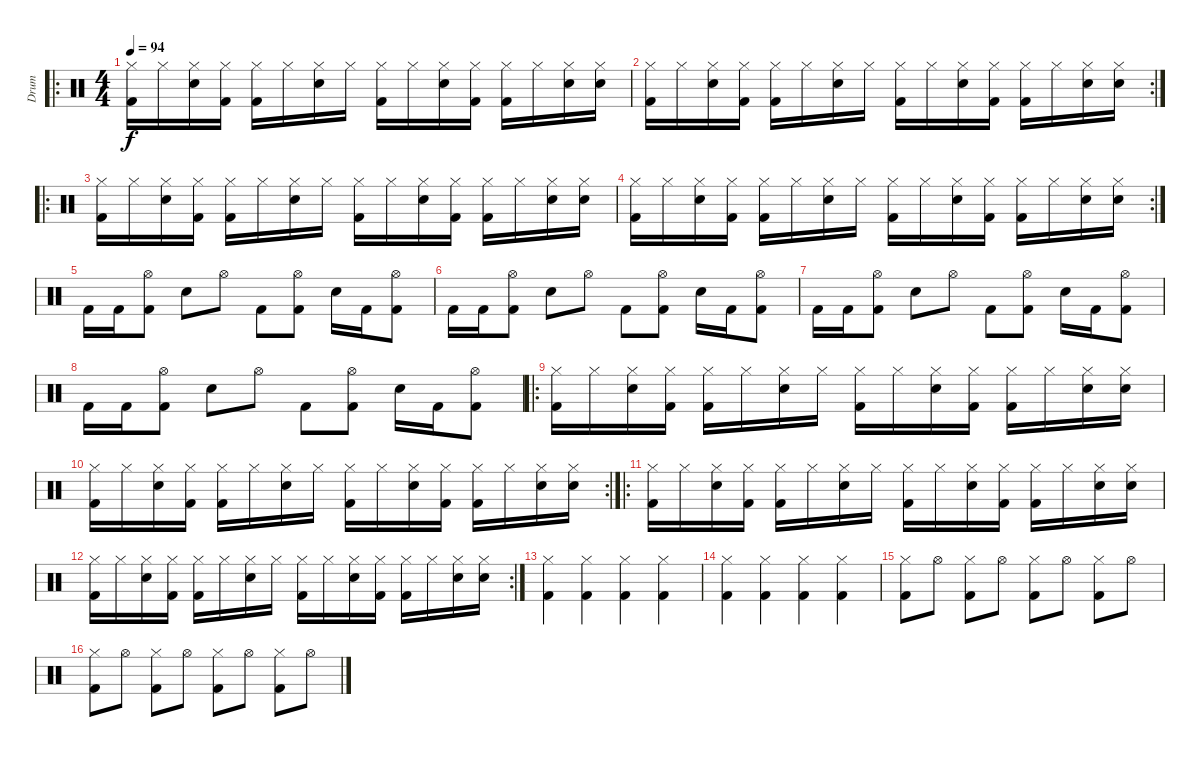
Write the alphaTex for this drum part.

\track ("Drum" "Drum") {instrument percussion}
\staff {score}
\articulation defaults
\ro
\ts (4 4)
\tempo 94
\clef neutral
\ks c
("Kick (hit) 2" "Hi-Hat (closed)").16{dy f} "Hi-Hat (closed)".16 ("Snare (hit) 2" "Hi-Hat (closed)").16 ("Kick (hit) 2" "Hi-Hat (closed)").16 ("Kick (hit) 2" "Hi-Hat (closed)").16 "Hi-Hat (closed)".16 ("Snare (hit) 2" "Hi-Hat (closed)").16 "Hi-Hat (closed)".16 ("Kick (hit) 2" "Hi-Hat (closed)").16 "Hi-Hat (closed)".16 ("Snare (hit) 2" "Hi-Hat (closed)").16 ("Kick (hit) 2" "Hi-Hat (closed)").16 ("Kick (hit) 2" "Hi-Hat (closed)").16 "Hi-Hat (closed)".16 ("Snare (hit) 2" "Hi-Hat (closed)").16 ("Snare (hit) 2" "Hi-Hat (closed)").16 |
\rc 2
("Kick (hit) 2" "Hi-Hat (closed)").16 "Hi-Hat (closed)".16 ("Snare (hit) 2" "Hi-Hat (closed)").16 ("Kick (hit) 2" "Hi-Hat (closed)").16 ("Kick (hit) 2" "Hi-Hat (closed)").16 "Hi-Hat (closed)".16 ("Snare (hit) 2" "Hi-Hat (closed)").16 "Hi-Hat (closed)".16 ("Kick (hit) 2" "Hi-Hat (closed)").16 "Hi-Hat (closed)".16 ("Snare (hit) 2" "Hi-Hat (closed)").16 ("Kick (hit) 2" "Hi-Hat (closed)").16 ("Kick (hit) 2" "Hi-Hat (closed)").16 "Hi-Hat (closed)".16 ("Snare (hit) 2" "Hi-Hat (closed)").16 ("Snare (hit) 2" "Hi-Hat (closed)").16 |
\ro
("Kick (hit) 2" "Hi-Hat (closed)").16 "Hi-Hat (closed)".16 ("Snare (hit) 2" "Hi-Hat (closed)").16 ("Kick (hit) 2" "Hi-Hat (closed)").16 ("Kick (hit) 2" "Hi-Hat (closed)").16 "Hi-Hat (closed)".16 ("Snare (hit) 2" "Hi-Hat (closed)").16 "Hi-Hat (closed)".16 ("Kick (hit) 2" "Hi-Hat (closed)").16 "Hi-Hat (closed)".16 ("Snare (hit) 2" "Hi-Hat (closed)").16 ("Kick (hit) 2" "Hi-Hat (closed)").16 ("Kick (hit) 2" "Hi-Hat (closed)").16 "Hi-Hat (closed)".16 ("Snare (hit) 2" "Hi-Hat (closed)").16 ("Snare (hit) 2" "Hi-Hat (closed)").16 |
\rc 2
("Kick (hit) 2" "Hi-Hat (closed)").16 "Hi-Hat (closed)".16 ("Snare (hit) 2" "Hi-Hat (closed)").16 ("Kick (hit) 2" "Hi-Hat (closed)").16 ("Kick (hit) 2" "Hi-Hat (closed)").16 "Hi-Hat (closed)".16 ("Snare (hit) 2" "Hi-Hat (closed)").16 "Hi-Hat (closed)".16 ("Kick (hit) 2" "Hi-Hat (closed)").16 "Hi-Hat (closed)".16 ("Snare (hit) 2" "Hi-Hat (closed)").16 ("Kick (hit) 2" "Hi-Hat (closed)").16 ("Kick (hit) 2" "Hi-Hat (closed)").16 "Hi-Hat (closed)".16 ("Snare (hit) 2" "Hi-Hat (closed)").16 ("Snare (hit) 2" "Hi-Hat (closed)").16 |
"Kick (hit) 2".16 "Kick (hit) 2".16 ("Kick (hit) 2" "Hi-Hat (open)").8 "Snare (hit) 2".8 "Hi-Hat (open)".8 "Kick (hit) 2".8 ("Kick (hit) 2" "Hi-Hat (open)").8 "Snare (hit) 2".16 "Kick (hit) 2".16 ("Kick (hit) 2" "Hi-Hat (open)").8 |
"Kick (hit) 2".16 "Kick (hit) 2".16 ("Kick (hit) 2" "Hi-Hat (open)").8 "Snare (hit) 2".8 "Hi-Hat (open)".8 "Kick (hit) 2".8 ("Kick (hit) 2" "Hi-Hat (open)").8 "Snare (hit) 2".16 "Kick (hit) 2".16 ("Kick (hit) 2" "Hi-Hat (open)").8 |
"Kick (hit) 2".16 "Kick (hit) 2".16 ("Kick (hit) 2" "Hi-Hat (open)").8 "Snare (hit) 2".8 "Hi-Hat (open)".8 "Kick (hit) 2".8 ("Kick (hit) 2" "Hi-Hat (open)").8 "Snare (hit) 2".16 "Kick (hit) 2".16 ("Kick (hit) 2" "Hi-Hat (open)").8 |
"Kick (hit) 2".16 "Kick (hit) 2".16 ("Kick (hit) 2" "Hi-Hat (open)").8 "Snare (hit) 2".8 "Hi-Hat (open)".8 "Kick (hit) 2".8 ("Kick (hit) 2" "Hi-Hat (open)").8 "Snare (hit) 2".16 "Kick (hit) 2".16 ("Kick (hit) 2" "Hi-Hat (open)").8 |
\ro
("Kick (hit) 2" "Hi-Hat (closed)").16 "Hi-Hat (closed)".16 ("Snare (hit) 2" "Hi-Hat (closed)").16 ("Kick (hit) 2" "Hi-Hat (closed)").16 ("Kick (hit) 2" "Hi-Hat (closed)").16 "Hi-Hat (closed)".16 ("Snare (hit) 2" "Hi-Hat (closed)").16 "Hi-Hat (closed)".16 ("Kick (hit) 2" "Hi-Hat (closed)").16 "Hi-Hat (closed)".16 ("Snare (hit) 2" "Hi-Hat (closed)").16 ("Kick (hit) 2" "Hi-Hat (closed)").16 ("Kick (hit) 2" "Hi-Hat (closed)").16 "Hi-Hat (closed)".16 ("Snare (hit) 2" "Hi-Hat (closed)").16 ("Snare (hit) 2" "Hi-Hat (closed)").16 |
\rc 2
("Kick (hit) 2" "Hi-Hat (closed)").16 "Hi-Hat (closed)".16 ("Snare (hit) 2" "Hi-Hat (closed)").16 ("Kick (hit) 2" "Hi-Hat (closed)").16 ("Kick (hit) 2" "Hi-Hat (closed)").16 "Hi-Hat (closed)".16 ("Snare (hit) 2" "Hi-Hat (closed)").16 "Hi-Hat (closed)".16 ("Kick (hit) 2" "Hi-Hat (closed)").16 "Hi-Hat (closed)".16 ("Snare (hit) 2" "Hi-Hat (closed)").16 ("Kick (hit) 2" "Hi-Hat (closed)").16 ("Kick (hit) 2" "Hi-Hat (closed)").16 "Hi-Hat (closed)".16 ("Snare (hit) 2" "Hi-Hat (closed)").16 ("Snare (hit) 2" "Hi-Hat (closed)").16 |
\ro
("Kick (hit) 2" "Hi-Hat (closed)").16 "Hi-Hat (closed)".16 ("Snare (hit) 2" "Hi-Hat (closed)").16 ("Kick (hit) 2" "Hi-Hat (closed)").16 ("Kick (hit) 2" "Hi-Hat (closed)").16 "Hi-Hat (closed)".16 ("Snare (hit) 2" "Hi-Hat (closed)").16 "Hi-Hat (closed)".16 ("Kick (hit) 2" "Hi-Hat (closed)").16 "Hi-Hat (closed)".16 ("Snare (hit) 2" "Hi-Hat (closed)").16 ("Kick (hit) 2" "Hi-Hat (closed)").16 ("Kick (hit) 2" "Hi-Hat (closed)").16 "Hi-Hat (closed)".16 ("Snare (hit) 2" "Hi-Hat (closed)").16 ("Snare (hit) 2" "Hi-Hat (closed)").16 |
\rc 2
("Kick (hit) 2" "Hi-Hat (closed)").16 "Hi-Hat (closed)".16 ("Snare (hit) 2" "Hi-Hat (closed)").16 ("Kick (hit) 2" "Hi-Hat (closed)").16 ("Kick (hit) 2" "Hi-Hat (closed)").16 "Hi-Hat (closed)".16 ("Snare (hit) 2" "Hi-Hat (closed)").16 "Hi-Hat (closed)".16 ("Kick (hit) 2" "Hi-Hat (closed)").16 "Hi-Hat (closed)".16 ("Snare (hit) 2" "Hi-Hat (closed)").16 ("Kick (hit) 2" "Hi-Hat (closed)").16 ("Kick (hit) 2" "Hi-Hat (closed)").16 "Hi-Hat (closed)".16 ("Snare (hit) 2" "Hi-Hat (closed)").16 ("Snare (hit) 2" "Hi-Hat (closed)").16 |
("Kick (hit) 2" "Hi-Hat (closed)").4 ("Kick (hit) 2" "Hi-Hat (closed)").4 ("Kick (hit) 2" "Hi-Hat (closed)").4 ("Kick (hit) 2" "Hi-Hat (closed)").4 |
("Kick (hit) 2" "Hi-Hat (closed)").4 ("Kick (hit) 2" "Hi-Hat (closed)").4 ("Kick (hit) 2" "Hi-Hat (closed)").4 ("Kick (hit) 2" "Hi-Hat (closed)").4 |
("Kick (hit) 2" "Hi-Hat (closed)").8 "Hi-Hat (open)".8 ("Kick (hit) 2" "Hi-Hat (closed)").8 "Hi-Hat (open)".8 ("Kick (hit) 2" "Hi-Hat (closed)").8 "Hi-Hat (open)".8 ("Kick (hit) 2" "Hi-Hat (closed)").8 "Hi-Hat (open)".8 |
("Kick (hit) 2" "Hi-Hat (closed)").8 "Hi-Hat (open)".8 ("Kick (hit) 2" "Hi-Hat (closed)").8 "Hi-Hat (open)".8 ("Kick (hit) 2" "Hi-Hat (closed)").8 "Hi-Hat (open)".8 ("Kick (hit) 2" "Hi-Hat (closed)").8 "Hi-Hat (open)".8
